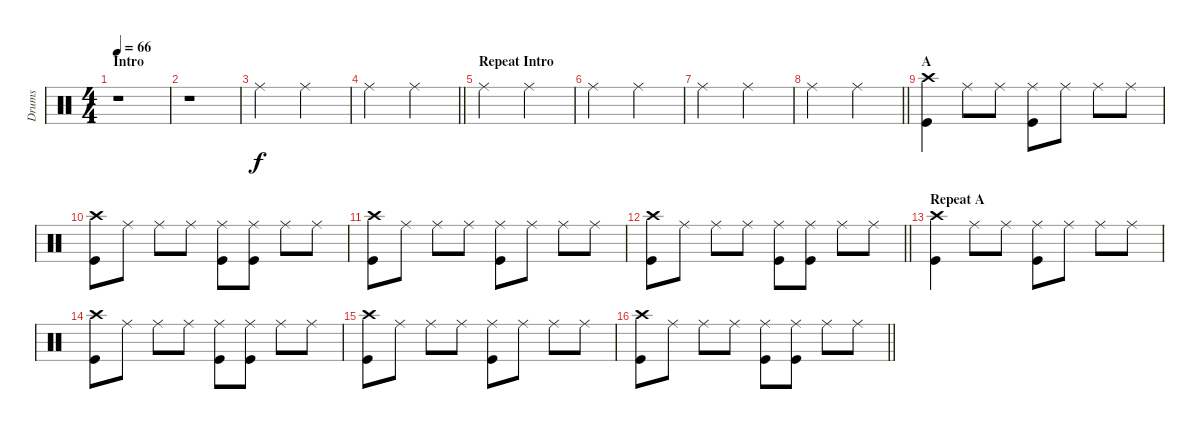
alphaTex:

\track ("Drums" "Drums") {instrument percussion}
\staff {score}
\articulation defaults
\ts (4 4)
\section ("" "Intro ")
\tempo 66
\clef neutral
\ks c
r.1{dy f} |
r.1 |
"Ride (middle)".2 "Ride (middle)".2 |
\barLineRight lightlight "Ride (middle)".2 "Ride (middle)".2
|
\section ("" "Repeat Intro")
"Ride (middle)".2 "Ride (middle)".2 |
"Ride (middle)".2 "Ride (middle)".2 |
"Ride (middle)".2 "Ride (middle)".2 |
\barLineRight lightlight "Ride (middle)".2 "Ride (middle)".2
|
\section ("" "A")
("Crash high (hit)" "Kick (hit)").4 "Ride (middle)".8 "Ride (middle)".8 ("Ride (middle)" "Kick (hit)").8 "Ride (middle)".8 "Ride (middle)".8 "Ride (middle)".8 |
("Crash high (hit)" "Kick (hit)").8 "Ride (middle)".8 "Ride (middle)".8 "Ride (middle)".8 ("Ride (middle)" "Kick (hit)").8 ("Ride (middle)" "Kick (hit)").8 "Ride (middle)".8 "Ride (middle)".8 |
("Crash high (hit)" "Kick (hit)").8 "Ride (middle)".8 "Ride (middle)".8 "Ride (middle)".8 ("Ride (middle)" "Kick (hit)").8 "Ride (middle)".8 "Ride (middle)".8 "Ride (middle)".8 |
\barLineRight lightlight
("Crash high (hit)" "Kick (hit)").8 "Ride (middle)".8 "Ride (middle)".8 "Ride (middle)".8 ("Ride (middle)" "Kick (hit)").8 ("Ride (middle)" "Kick (hit)").8 "Ride (middle)".8 "Ride (middle)".8 |
\section ("" "Repeat A")
("Crash high (hit)" "Kick (hit)").4 "Ride (middle)".8 "Ride (middle)".8 ("Ride (middle)" "Kick (hit)").8 "Ride (middle)".8 "Ride (middle)".8 "Ride (middle)".8 |
("Crash high (hit)" "Kick (hit)").8 "Ride (middle)".8 "Ride (middle)".8 "Ride (middle)".8 ("Ride (middle)" "Kick (hit)").8 ("Ride (middle)" "Kick (hit)").8 "Ride (middle)".8 "Ride (middle)".8 |
("Crash high (hit)" "Kick (hit)").8 "Ride (middle)".8 "Ride (middle)".8 "Ride (middle)".8 ("Ride (middle)" "Kick (hit)").8 "Ride (middle)".8 "Ride (middle)".8 "Ride (middle)".8 |
\barLineRight lightlight
("Crash high (hit)" "Kick (hit)").8 "Ride (middle)".8 "Ride (middle)".8 "Ride (middle)".8 ("Ride (middle)" "Kick (hit)").8 ("Ride (middle)" "Kick (hit)").8 "Ride (middle)".8 "Ride (middle)".8
